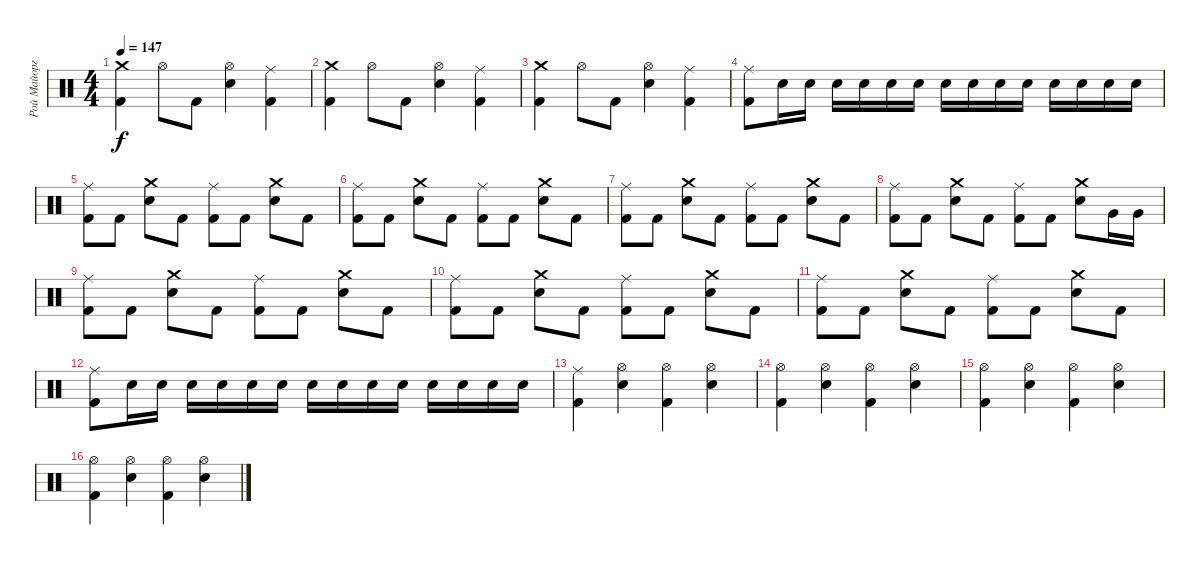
\track ("Рой Майорга" "Рой Майорг") {instrument percussion}
\staff {score}
\articulation defaults
\ts (4 4)
\tempo 147
\clef neutral
\ks c
("Crash medium (hit)" "Kick (hit) 2").4{dy f} "Hi-Hat (open)".8 "Kick (hit) 2".8 ("Hi-Hat (open)" "Electric Snare (hit)").4 ("Ride (middle)" "Kick (hit) 2").4 |
("Crash medium (hit)" "Kick (hit) 2").4 "Hi-Hat (open)".8 "Kick (hit) 2".8 ("Hi-Hat (open)" "Electric Snare (hit)").4 ("Ride (middle)" "Kick (hit) 2").4 |
("Crash medium (hit)" "Kick (hit) 2").4 "Hi-Hat (open)".8 "Kick (hit) 2".8 ("Hi-Hat (open)" "Electric Snare (hit)").4 ("Ride (middle)" "Kick (hit) 2").4 |
("Ride (middle)" "Kick (hit) 2").8 "Electric Snare (hit)".16 "Electric Snare (hit)".16 "Electric Snare (hit)".16 "Electric Snare (hit)".16 "Electric Snare (hit)".16 "Electric Snare (hit)".16 "Electric Snare (hit)".16 "Electric Snare (hit)".16 "Electric Snare (hit)".16 "Electric Snare (hit)".16 "Electric Snare (hit)".16 "Electric Snare (hit)".16 "Electric Snare (hit)".16 "Electric Snare (hit)".16 |
("Ride (middle)" "Kick (hit) 2").8 "Kick (hit) 2".8 ("Crash medium (hit)" "Electric Snare (hit)").8 "Kick (hit) 2".8 ("Ride (middle)" "Kick (hit) 2").8 "Kick (hit) 2".8 ("Crash medium (hit)" "Electric Snare (hit)").8 "Kick (hit) 2".8 |
("Ride (middle)" "Kick (hit) 2").8 "Kick (hit) 2".8 ("Crash medium (hit)" "Electric Snare (hit)").8 "Kick (hit) 2".8 ("Ride (middle)" "Kick (hit) 2").8 "Kick (hit) 2".8 ("Crash medium (hit)" "Electric Snare (hit)").8 "Kick (hit) 2".8 |
("Ride (middle)" "Kick (hit) 2").8 "Kick (hit) 2".8 ("Crash medium (hit)" "Electric Snare (hit)").8 "Kick (hit) 2".8 ("Ride (middle)" "Kick (hit) 2").8 "Kick (hit) 2".8 ("Crash medium (hit)" "Electric Snare (hit)").8 "Kick (hit) 2".8 |
("Ride (middle)" "Kick (hit) 2").8 "Kick (hit) 2".8 ("Crash medium (hit)" "Electric Snare (hit)").8 "Kick (hit) 2".8 ("Ride (middle)" "Kick (hit) 2").8 "Kick (hit) 2".8 ("Crash medium (hit)" "Electric Snare (hit)").8 "Very Low Tom (hit)".16 "Very Low Tom (hit)".16 |
("Ride (middle)" "Kick (hit) 2").8 "Kick (hit) 2".8 ("Crash medium (hit)" "Electric Snare (hit)").8 "Kick (hit) 2".8 ("Ride (middle)" "Kick (hit) 2").8 "Kick (hit) 2".8 ("Crash medium (hit)" "Electric Snare (hit)").8 "Kick (hit) 2".8 |
("Ride (middle)" "Kick (hit) 2").8 "Kick (hit) 2".8 ("Crash medium (hit)" "Electric Snare (hit)").8 "Kick (hit) 2".8 ("Ride (middle)" "Kick (hit) 2").8 "Kick (hit) 2".8 ("Crash medium (hit)" "Electric Snare (hit)").8 "Kick (hit) 2".8 |
("Ride (middle)" "Kick (hit) 2").8 "Kick (hit) 2".8 ("Crash medium (hit)" "Electric Snare (hit)").8 "Kick (hit) 2".8 ("Ride (middle)" "Kick (hit) 2").8 "Kick (hit) 2".8 ("Crash medium (hit)" "Electric Snare (hit)").8 "Kick (hit) 2".8 |
("Ride (middle)" "Kick (hit) 2").8 "Electric Snare (hit)".16 "Electric Snare (hit)".16 "Electric Snare (hit)".16 "Electric Snare (hit)".16 "Electric Snare (hit)".16 "Electric Snare (hit)".16 "Electric Snare (hit)".16 "Electric Snare (hit)".16 "Electric Snare (hit)".16 "Electric Snare (hit)".16 "Electric Snare (hit)".16 "Electric Snare (hit)".16 "Electric Snare (hit)".16 "Electric Snare (hit)".16 |
("Ride (middle)" "Kick (hit) 2").4 ("Hi-Hat (open)" "Electric Snare (hit)").4 ("Hi-Hat (open)" "Kick (hit) 2").4 ("Hi-Hat (open)" "Electric Snare (hit)").4 |
("Hi-Hat (open)" "Kick (hit) 2").4 ("Hi-Hat (open)" "Electric Snare (hit)").4 ("Hi-Hat (open)" "Kick (hit) 2").4 ("Hi-Hat (open)" "Electric Snare (hit)").4 |
("Hi-Hat (open)" "Kick (hit) 2").4 ("Hi-Hat (open)" "Electric Snare (hit)").4 ("Hi-Hat (open)" "Kick (hit) 2").4 ("Hi-Hat (open)" "Electric Snare (hit)").4 |
("Hi-Hat (open)" "Kick (hit) 2").4 ("Hi-Hat (open)" "Electric Snare (hit)").4 ("Hi-Hat (open)" "Kick (hit) 2").4 ("Hi-Hat (open)" "Electric Snare (hit)").4
